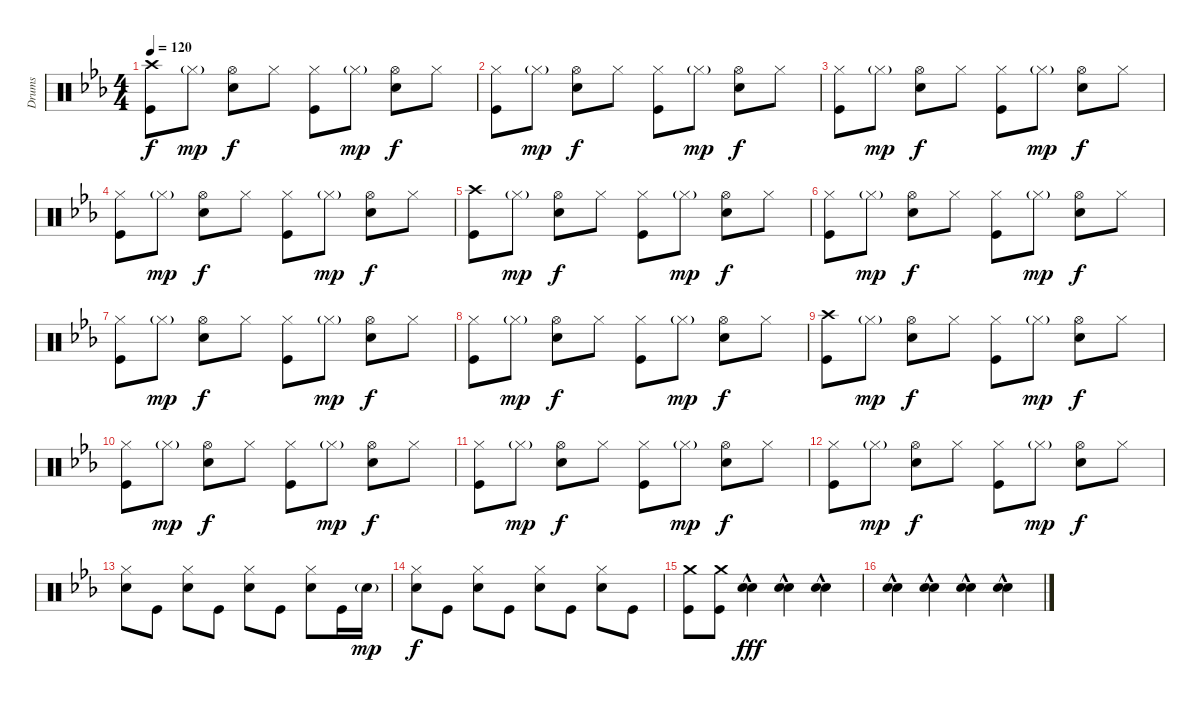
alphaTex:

\track ("Drums" "Drums") {instrument percussion}
\staff {score}
\articulation defaults
\ts (4 4)
\tempo 120
\clef neutral
\ks eb
("Crash high (hit)" "Kick (hit)").8{dy f} "Hi-Hat (closed)"{g}.8{dy mp} ("Hi-Hat (open)" "Electric Snare (hit)").8{dy f} "Hi-Hat (closed)".8 ("Hi-Hat (closed)" "Kick (hit)").8 "Hi-Hat (closed)"{g}.8{dy mp} ("Hi-Hat (open)" "Electric Snare (hit)").8{dy f} "Hi-Hat (closed)".8 |
("Hi-Hat (closed)" "Kick (hit)").8 "Hi-Hat (closed)"{g}.8{dy mp} ("Hi-Hat (open)" "Electric Snare (hit)").8{dy f} "Hi-Hat (closed)".8 ("Hi-Hat (closed)" "Kick (hit)").8 "Hi-Hat (closed)"{g}.8{dy mp} ("Hi-Hat (open)" "Electric Snare (hit)").8{dy f} "Hi-Hat (closed)".8 |
("Hi-Hat (closed)" "Kick (hit)").8 "Hi-Hat (closed)"{g}.8{dy mp} ("Hi-Hat (open)" "Electric Snare (hit)").8{dy f} "Hi-Hat (closed)".8 ("Hi-Hat (closed)" "Kick (hit)").8 "Hi-Hat (closed)"{g}.8{dy mp} ("Hi-Hat (open)" "Electric Snare (hit)").8{dy f} "Hi-Hat (closed)".8 |
("Hi-Hat (closed)" "Kick (hit)").8 "Hi-Hat (closed)"{g}.8{dy mp} ("Hi-Hat (open)" "Electric Snare (hit)").8{dy f} "Hi-Hat (closed)".8 ("Hi-Hat (closed)" "Kick (hit)").8 "Hi-Hat (closed)"{g}.8{dy mp} ("Hi-Hat (open)" "Electric Snare (hit)").8{dy f} "Hi-Hat (closed)".8 |
("Crash high (hit)" "Kick (hit)").8 "Hi-Hat (closed)"{g}.8{dy mp} ("Hi-Hat (open)" "Electric Snare (hit)").8{dy f} "Hi-Hat (closed)".8 ("Hi-Hat (closed)" "Kick (hit)").8 "Hi-Hat (closed)"{g}.8{dy mp} ("Hi-Hat (open)" "Electric Snare (hit)").8{dy f} "Hi-Hat (closed)".8 |
("Hi-Hat (closed)" "Kick (hit)").8 "Hi-Hat (closed)"{g}.8{dy mp} ("Hi-Hat (open)" "Electric Snare (hit)").8{dy f} "Hi-Hat (closed)".8 ("Hi-Hat (closed)" "Kick (hit)").8 "Hi-Hat (closed)"{g}.8{dy mp} ("Hi-Hat (open)" "Electric Snare (hit)").8{dy f} "Hi-Hat (closed)".8 |
("Hi-Hat (closed)" "Kick (hit)").8 "Hi-Hat (closed)"{g}.8{dy mp} ("Hi-Hat (open)" "Electric Snare (hit)").8{dy f} "Hi-Hat (closed)".8 ("Hi-Hat (closed)" "Kick (hit)").8 "Hi-Hat (closed)"{g}.8{dy mp} ("Hi-Hat (open)" "Electric Snare (hit)").8{dy f} "Hi-Hat (closed)".8 |
("Hi-Hat (closed)" "Kick (hit)").8 "Hi-Hat (closed)"{g}.8{dy mp} ("Hi-Hat (open)" "Electric Snare (hit)").8{dy f} "Hi-Hat (closed)".8 ("Hi-Hat (closed)" "Kick (hit)").8 "Hi-Hat (closed)"{g}.8{dy mp} ("Hi-Hat (open)" "Electric Snare (hit)").8{dy f} "Hi-Hat (closed)".8 |
("Crash high (hit)" "Kick (hit)").8 "Hi-Hat (closed)"{g}.8{dy mp} ("Hi-Hat (open)" "Electric Snare (hit)").8{dy f} "Hi-Hat (closed)".8 ("Hi-Hat (closed)" "Kick (hit)").8 "Hi-Hat (closed)"{g}.8{dy mp} ("Hi-Hat (open)" "Electric Snare (hit)").8{dy f} "Hi-Hat (closed)".8 |
("Hi-Hat (closed)" "Kick (hit)").8 "Hi-Hat (closed)"{g}.8{dy mp} ("Hi-Hat (open)" "Electric Snare (hit)").8{dy f} "Hi-Hat (closed)".8 ("Hi-Hat (closed)" "Kick (hit)").8 "Hi-Hat (closed)"{g}.8{dy mp} ("Hi-Hat (open)" "Electric Snare (hit)").8{dy f} "Hi-Hat (closed)".8 |
("Hi-Hat (closed)" "Kick (hit)").8 "Hi-Hat (closed)"{g}.8{dy mp} ("Hi-Hat (open)" "Electric Snare (hit)").8{dy f} "Hi-Hat (closed)".8 ("Hi-Hat (closed)" "Kick (hit)").8 "Hi-Hat (closed)"{g}.8{dy mp} ("Hi-Hat (open)" "Electric Snare (hit)").8{dy f} "Hi-Hat (closed)".8 |
("Hi-Hat (closed)" "Kick (hit)").8 "Hi-Hat (closed)"{g}.8{dy mp} ("Hi-Hat (open)" "Electric Snare (hit)").8{dy f} "Hi-Hat (closed)".8 ("Hi-Hat (closed)" "Kick (hit)").8 "Hi-Hat (closed)"{g}.8{dy mp} ("Hi-Hat (open)" "Electric Snare (hit)").8{dy f} "Hi-Hat (closed)".8 |
("Hi-Hat (closed)" "Electric Snare (hit)").8 "Kick (hit)".8 ("Hi-Hat (closed)" "Electric Snare (hit)").8 "Kick (hit)".8 ("Hi-Hat (closed)" "Electric Snare (hit)").8 "Kick (hit)".8 ("Hi-Hat (closed)" "Electric Snare (hit)").8 "Kick (hit)".16 "Electric Snare (hit)"{g}.16{dy mp} |
("Hi-Hat (closed)" "Electric Snare (hit)").8{dy f} "Kick (hit)".8 ("Hi-Hat (closed)" "Electric Snare (hit)").8 "Kick (hit)".8 ("Hi-Hat (closed)" "Electric Snare (hit)").8 "Kick (hit)".8 ("Hi-Hat (closed)" "Electric Snare (hit)").8 "Kick (hit)".8 |
("Crash medium (hit)" "Kick (hit)").8 ("Crash medium (hit)" "Kick (hit)").8 ("Hand Clap (hit)"{hac} "Hand Clap (hit)"{hac}).4{dy fff} ("Hand Clap (hit)"{hac} "Hand Clap (hit)"{hac}).4 ("Hand Clap (hit)"{hac} "Hand Clap (hit)"{hac}).4 |
("Hand Clap (hit)"{hac} "Hand Clap (hit)"{hac}).4 ("Hand Clap (hit)"{hac} "Hand Clap (hit)"{hac}).4 ("Hand Clap (hit)"{hac} "Hand Clap (hit)"{hac}).4 ("Hand Clap (hit)"{hac} "Hand Clap (hit)"{hac}).4
